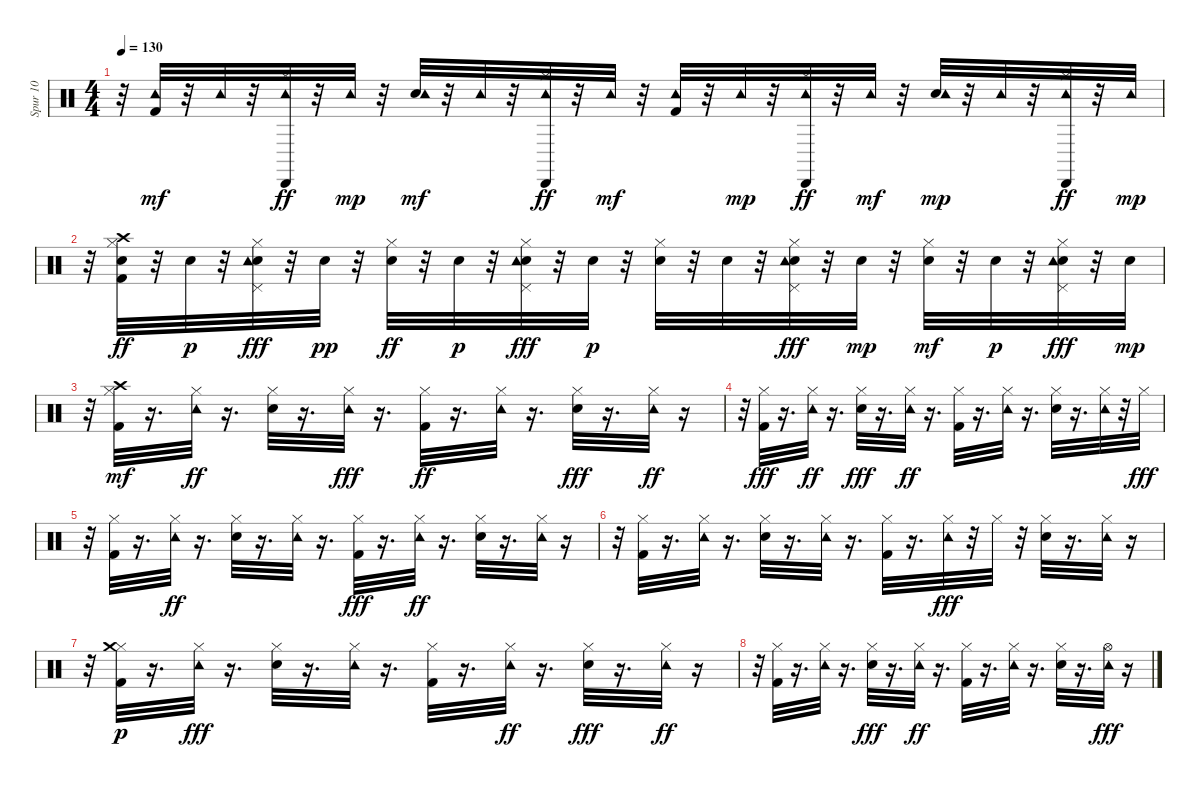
\track ("Spur 10" "Spur 10") {instrument percussion}
\staff {score}
\articulation defaults
\ts (4 4)
\tempo 130
\clef neutral
\ks c
r.32{dy mf} ("Kick (hit) 2" "Tambourine (hit)").32 r.32 "Tambourine (hit)".32 r.32 ("Hi-Hat (closed)" "Tambourine (hit)" "Cabasa (hit)").32{dy ff} r.32 "Tambourine (hit)".32{dy mp} r.32 ("Electric Snare (hit)" "Tambourine (hit)").32{dy mf} r.32 "Tambourine (hit)".32 r.32 ("Hi-Hat (closed)" "Tambourine (hit)" "Cabasa (hit)").32{dy ff} r.32 "Tambourine (hit)".32{dy mf} r.32 ("Kick (hit) 2" "Tambourine (hit)").32 r.32 "Tambourine (hit)".32{dy mp} r.32 ("Hi-Hat (closed)" "Tambourine (hit)" "Cabasa (hit)").32{dy ff} r.32 "Tambourine (hit)".32{dy mf} r.32 ("Electric Snare (hit)" "Tambourine (hit)").32{dy mp} r.32 "Tambourine (hit)".32 r.32 ("Hi-Hat (closed)" "Tambourine (hit)" "Cabasa (hit)").32{dy ff} r.32 "Tambourine (hit)".32{dy mp} |
r.32 ("Kick (hit) 2" "Crash high (hit)" "Electric Snare (hit)" "Hi-Hat (closed)").32{dy ff} r.32 "Electric Snare (hit)".32{dy p} r.32 ("Electric Snare (hit)" "Tambourine (hit)" "Hi-Hat (closed)" "Pedal Hi-Hat (hit)").32{dy fff} r.32 "Electric Snare (hit)".32{dy pp} r.32 ("Electric Snare (hit)" "Hi-Hat (closed)").32{dy ff} r.32 "Electric Snare (hit)".32{dy p} r.32 ("Electric Snare (hit)" "Tambourine (hit)" "Hi-Hat (closed)" "Pedal Hi-Hat (hit)").32{dy fff} r.32 "Electric Snare (hit)".32{dy p} r.32 ("Electric Snare (hit)" "Hi-Hat (closed)").32 r.32 "Electric Snare (hit)".32 r.32 ("Electric Snare (hit)" "Tambourine (hit)" "Hi-Hat (closed)" "Pedal Hi-Hat (hit)").32{dy fff} r.32 "Electric Snare (hit)".32{dy mp} r.32 ("Electric Snare (hit)" "Hi-Hat (closed)").32{dy mf} r.32 "Electric Snare (hit)".32{dy p} r.32 ("Electric Snare (hit)" "Tambourine (hit)" "Hi-Hat (closed)" "Pedal Hi-Hat (hit)").32{dy fff} r.32 "Electric Snare (hit)".32{dy mp} |
r.32 ("Kick (hit) 2" "Hi-Hat (closed)" "Crash high (hit)").32{dy mf} r.16{d} ("Tambourine (hit)" "Hi-Hat (closed)").32{dy ff} r.16{d} ("Electric Snare (hit)" "Hi-Hat (closed)").32 r.16{d} ("Tambourine (hit)" "Hi-Hat (closed)").32{dy fff} r.16{d} ("Kick (hit) 2" "Hi-Hat (closed)").32{dy ff} r.16{d} ("Tambourine (hit)" "Hi-Hat (closed)").32 r.16{d} ("Electric Snare (hit)" "Hi-Hat (closed)").32{dy fff} r.16{d} ("Tambourine (hit)" "Hi-Hat (closed)").32{dy ff} r.16 |
r.32 ("Kick (hit) 2" "Hi-Hat (closed)").32{dy fff} r.16{d} ("Tambourine (hit)" "Hi-Hat (closed)").32{dy ff} r.16{d} ("Electric Snare (hit)" "Hi-Hat (closed)").32{dy fff} r.16{d} ("Tambourine (hit)" "Hi-Hat (closed)").32{dy ff} r.16{d} ("Kick (hit) 2" "Hi-Hat (closed)").32 r.16{d} ("Tambourine (hit)" "Hi-Hat (closed)").32 r.16{d} ("Electric Snare (hit)" "Hi-Hat (closed)").32 r.16{d} ("Tambourine (hit)" "Hi-Hat (closed)").32 r.32 "Hi-Hat (closed)".32{dy fff} |
r.32 ("Kick (hit) 2" "Hi-Hat (closed)").32 r.16{d} ("Tambourine (hit)" "Hi-Hat (closed)").32{dy ff} r.16{d} ("Electric Snare (hit)" "Hi-Hat (closed)").32 r.16{d} ("Tambourine (hit)" "Hi-Hat (closed)").32 r.16{d} ("Kick (hit) 2" "Hi-Hat (closed)").32{dy fff} r.16{d} ("Tambourine (hit)" "Hi-Hat (closed)").32{dy ff} r.16{d} ("Electric Snare (hit)" "Hi-Hat (closed)").32 r.16{d} ("Tambourine (hit)" "Hi-Hat (closed)").32 r.16 |
r.32 ("Kick (hit) 2" "Hi-Hat (closed)").32 r.16{d} ("Tambourine (hit)" "Hi-Hat (closed)").32 r.16{d} ("Electric Snare (hit)" "Hi-Hat (closed)").32 r.16{d} ("Tambourine (hit)" "Hi-Hat (closed)").32 r.16{d} ("Kick (hit) 2" "Hi-Hat (closed)").32 r.16{d} ("Tambourine (hit)" "Hi-Hat (closed)").32{dy fff} r.32 "Hi-Hat (closed)".32 r.32 ("Electric Snare (hit)" "Hi-Hat (closed)").32 r.16{d} ("Tambourine (hit)" "Hi-Hat (closed)").32 r.16 |
r.32 ("Kick (hit) 2" "Hi-Hat (closed)" "Crash medium (hit)").32{dy p} r.16{d} ("Tambourine (hit)" "Hi-Hat (closed)").32{dy fff} r.16{d} ("Electric Snare (hit)" "Hi-Hat (closed)").32 r.16{d} ("Tambourine (hit)" "Hi-Hat (closed)").32 r.16{d} ("Kick (hit) 2" "Hi-Hat (closed)").32 r.16{d} ("Tambourine (hit)" "Hi-Hat (closed)").32{dy ff} r.16{d} ("Electric Snare (hit)" "Hi-Hat (closed)").32{dy fff} r.16{d} ("Tambourine (hit)" "Hi-Hat (closed)").32{dy ff} r.16 |
r.32 ("Kick (hit) 2" "Hi-Hat (closed)").32 r.16{d} ("Tambourine (hit)" "Hi-Hat (closed)").32 r.16{d} ("Electric Snare (hit)" "Hi-Hat (closed)").32{dy fff} r.16{d} ("Tambourine (hit)" "Hi-Hat (closed)").32{dy ff} r.16{d} ("Kick (hit) 2" "Hi-Hat (closed)").32 r.16{d} ("Tambourine (hit)" "Hi-Hat (closed)").32 r.16{d} ("Electric Snare (hit)" "Hi-Hat (closed)").32 r.16{d} ("Tambourine (hit)" "Hi-Hat (open)").32{dy fff} r.16
